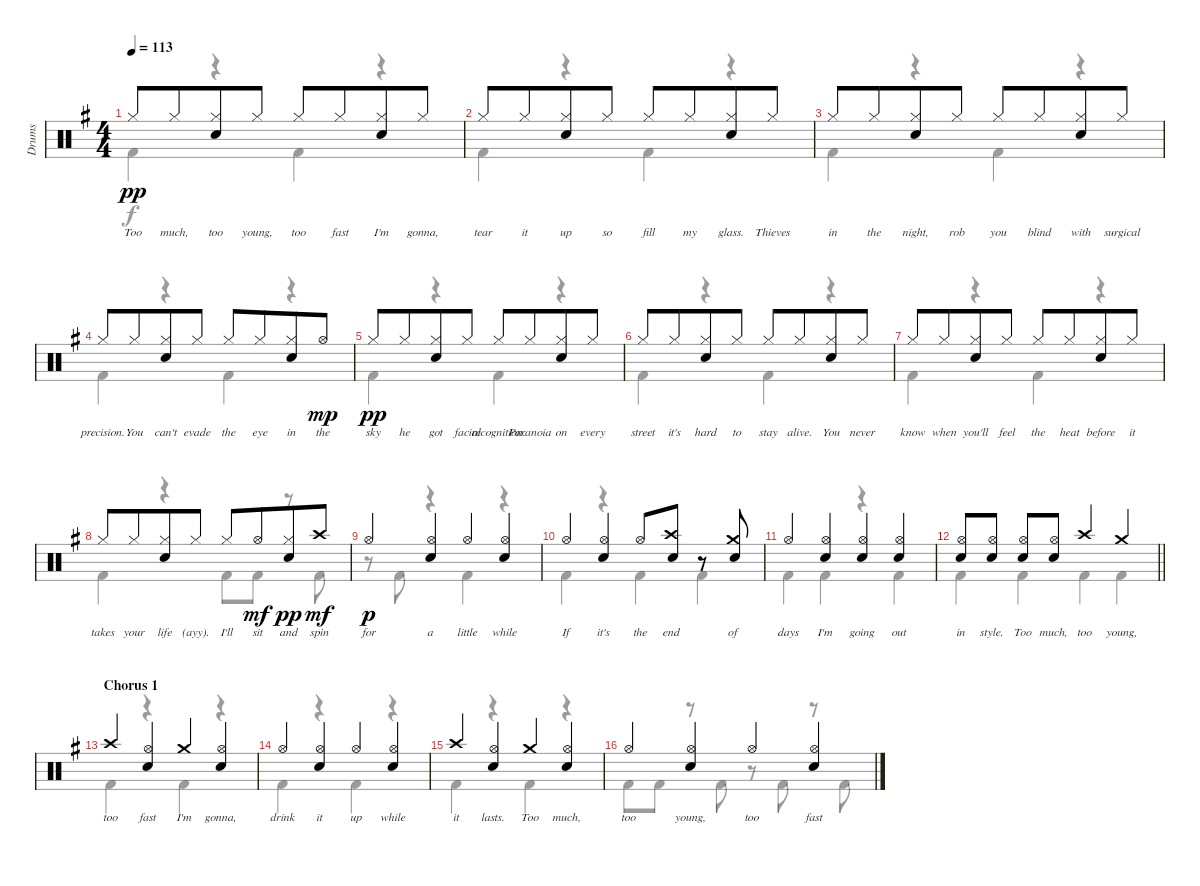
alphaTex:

\track ("Drums" "Drums") {instrument percussion}
\staff {score}
\articulation defaults
\voice
\ts (4 4)
\tempo 113
\clef neutral
\ks g "Hi-Hat (closed)".8{lyrics (0 "Too") lyrics (1 "") lyrics (2 "") lyrics (3 "") lyrics (4 "") dy pp} "Hi-Hat (closed)".8{lyrics (0 "much,") lyrics (1 "") lyrics (2 "") lyrics (3 "") lyrics (4 "") beam merge}
("Hi-Hat (closed)" "Electric Snare (hit)").8{lyrics (0 "too") lyrics (1 "") lyrics (2 "") lyrics (3 "") lyrics (4 "")} "Hi-Hat (closed)".8{lyrics (0 "young,") lyrics (1 "") lyrics (2 "") lyrics (3 "") lyrics (4 "")} "Hi-Hat (closed)".8{lyrics (0 "too") lyrics (1 "") lyrics (2 "") lyrics (3 "") lyrics (4 "")} "Hi-Hat (closed)".8{lyrics (0 "fast") lyrics (1 "") lyrics (2 "") lyrics (3 "") lyrics (4 "") beam merge} ("Hi-Hat (closed)" "Electric Snare (hit)").8{lyrics (0 "I'm") lyrics (1 "") lyrics (2 "") lyrics (3 "") lyrics (4 "")} "Hi-Hat (closed)".8{lyrics (0 "gonna,") lyrics (1 "") lyrics (2 "") lyrics (3 "") lyrics (4 "")} |
"Hi-Hat (closed)".8{lyrics (0 "tear") lyrics (1 "") lyrics (2 "") lyrics (3 "") lyrics (4 "")} "Hi-Hat (closed)".8{lyrics (0 "it") lyrics (1 "") lyrics (2 "") lyrics (3 "") lyrics (4 "") beam merge} ("Hi-Hat (closed)" "Electric Snare (hit)").8{lyrics (0 "up") lyrics (1 "") lyrics (2 "") lyrics (3 "") lyrics (4 "")} "Hi-Hat (closed)".8{lyrics (0 "so") lyrics (1 "") lyrics (2 "") lyrics (3 "") lyrics (4 "")} "Hi-Hat (closed)".8{lyrics (0 "fill") lyrics (1 "") lyrics (2 "") lyrics (3 "") lyrics (4 "")} "Hi-Hat (closed)".8{lyrics (0 "my") lyrics (1 "") lyrics (2 "") lyrics (3 "") lyrics (4 "") beam merge} ("Hi-Hat (closed)" "Electric Snare (hit)").8{lyrics (0 "glass.") lyrics (1 "") lyrics (2 "") lyrics (3 "") lyrics (4 "")} "Hi-Hat (closed)".8{lyrics (0 "Thieves") lyrics (1 "") lyrics (2 "") lyrics (3 "") lyrics (4 "")} |
"Hi-Hat (closed)".8{lyrics (0 "in") lyrics (1 "") lyrics (2 "") lyrics (3 "") lyrics (4 "")} "Hi-Hat (closed)".8{lyrics (0 "the") lyrics (1 "") lyrics (2 "") lyrics (3 "") lyrics (4 "") beam merge} ("Hi-Hat (closed)" "Electric Snare (hit)").8{lyrics (0 "night,") lyrics (1 "") lyrics (2 "") lyrics (3 "") lyrics (4 "")} "Hi-Hat (closed)".8{lyrics (0 "rob") lyrics (1 "") lyrics (2 "") lyrics (3 "") lyrics (4 "")} "Hi-Hat (closed)".8{lyrics (0 "you") lyrics (1 "") lyrics (2 "") lyrics (3 "") lyrics (4 "")} "Hi-Hat (closed)".8{lyrics (0 "blind") lyrics (1 "") lyrics (2 "") lyrics (3 "") lyrics (4 "") beam merge} ("Hi-Hat (closed)" "Electric Snare (hit)").8{lyrics (0 "with") lyrics (1 "") lyrics (2 "") lyrics (3 "") lyrics (4 "")} "Hi-Hat (closed)".8{lyrics (0 "surgical") lyrics (1 "") lyrics (2 "") lyrics (3 "") lyrics (4 "")} |
"Hi-Hat (closed)".8{lyrics (0 "precision.") lyrics (1 "") lyrics (2 "") lyrics (3 "") lyrics (4 "")} "Hi-Hat (closed)".8{lyrics (0 "You") lyrics (1 "") lyrics (2 "") lyrics (3 "") lyrics (4 "") beam merge} ("Hi-Hat (closed)" "Electric Snare (hit)").8{lyrics (0 "can't") lyrics (1 "") lyrics (2 "") lyrics (3 "") lyrics (4 "")} "Hi-Hat (closed)".8{lyrics (0 "evade") lyrics (1 "") lyrics (2 "") lyrics (3 "") lyrics (4 "")} "Hi-Hat (closed)".8{lyrics (0 "the") lyrics (1 "") lyrics (2 "") lyrics (3 "") lyrics (4 "")} "Hi-Hat (closed)".8{lyrics (0 "eye") lyrics (1 "") lyrics (2 "") lyrics (3 "") lyrics (4 "") beam merge} ("Hi-Hat (closed)" "Electric Snare (hit)").8{lyrics (0 "in") lyrics (1 "") lyrics (2 "") lyrics (3 "") lyrics (4 "")} "Hi-Hat (open)".8{lyrics (0 "the") lyrics (1 "") lyrics (2 "") lyrics (3 "") lyrics (4 "") dy mp} |
"Hi-Hat (closed)".8{lyrics (0 "sky") lyrics (1 "") lyrics (2 "") lyrics (3 "") lyrics (4 "") dy pp} "Hi-Hat (closed)".8{lyrics (0 "he") lyrics (1 "") lyrics (2 "") lyrics (3 "") lyrics (4 "") beam merge} ("Hi-Hat (closed)" "Electric Snare (hit)").8{lyrics (0 "got") lyrics (1 "") lyrics (2 "") lyrics (3 "") lyrics (4 "")} "Hi-Hat (closed)".8{lyrics (0 "facial") lyrics (1 "") lyrics (2 "") lyrics (3 "") lyrics (4 "")} "Hi-Hat (closed)".8{lyrics (0 "recognition.") lyrics (1 "") lyrics (2 "") lyrics (3 "") lyrics (4 "")} "Hi-Hat (closed)".8{lyrics (0 "Paranoia") lyrics (1 "") lyrics (2 "") lyrics (3 "") lyrics (4 "") beam merge} ("Hi-Hat (closed)" "Electric Snare (hit)").8{lyrics (0 "on") lyrics (1 "") lyrics (2 "") lyrics (3 "") lyrics (4 "")} "Hi-Hat (closed)".8{lyrics (0 "every") lyrics (1 "") lyrics (2 "") lyrics (3 "") lyrics (4 "")} |
"Hi-Hat (closed)".8{lyrics (0 "street") lyrics (1 "") lyrics (2 "") lyrics (3 "") lyrics (4 "")} "Hi-Hat (closed)".8{lyrics (0 "it's") lyrics (1 "") lyrics (2 "") lyrics (3 "") lyrics (4 "") beam merge} ("Hi-Hat (closed)" "Electric Snare (hit)").8{lyrics (0 "hard") lyrics (1 "") lyrics (2 "") lyrics (3 "") lyrics (4 "")} "Hi-Hat (closed)".8{lyrics (0 "to") lyrics (1 "") lyrics (2 "") lyrics (3 "") lyrics (4 "")} "Hi-Hat (closed)".8{lyrics (0 "stay") lyrics (1 "") lyrics (2 "") lyrics (3 "") lyrics (4 "")} "Hi-Hat (closed)".8{lyrics (0 "alive.") lyrics (1 "") lyrics (2 "") lyrics (3 "") lyrics (4 "") beam merge} ("Hi-Hat (closed)" "Electric Snare (hit)").8{lyrics (0 "You") lyrics (1 "") lyrics (2 "") lyrics (3 "") lyrics (4 "")} "Hi-Hat (closed)".8{lyrics (0 "never") lyrics (1 "") lyrics (2 "") lyrics (3 "") lyrics (4 "")} |
"Hi-Hat (closed)".8{lyrics (0 "know") lyrics (1 "") lyrics (2 "") lyrics (3 "") lyrics (4 "")} "Hi-Hat (closed)".8{lyrics (0 "when") lyrics (1 "") lyrics (2 "") lyrics (3 "") lyrics (4 "") beam merge} ("Hi-Hat (closed)" "Electric Snare (hit)").8{lyrics (0 "you'll") lyrics (1 "") lyrics (2 "") lyrics (3 "") lyrics (4 "")} "Hi-Hat (closed)".8{lyrics (0 "feel") lyrics (1 "") lyrics (2 "") lyrics (3 "") lyrics (4 "")} "Hi-Hat (closed)".8{lyrics (0 "the") lyrics (1 "") lyrics (2 "") lyrics (3 "") lyrics (4 "")} "Hi-Hat (closed)".8{lyrics (0 "heat") lyrics (1 "") lyrics (2 "") lyrics (3 "") lyrics (4 "") beam merge} ("Hi-Hat (closed)" "Electric Snare (hit)").8{lyrics (0 "before") lyrics (1 "") lyrics (2 "") lyrics (3 "") lyrics (4 "")} "Hi-Hat (closed)".8{lyrics (0 "it") lyrics (1 "") lyrics (2 "") lyrics (3 "") lyrics (4 "")} |
"Hi-Hat (closed)".8{lyrics (0 "takes") lyrics (1 "") lyrics (2 "") lyrics (3 "") lyrics (4 "")} "Hi-Hat (closed)".8{lyrics (0 "your") lyrics (1 "") lyrics (2 "") lyrics (3 "") lyrics (4 "") beam merge} ("Hi-Hat (closed)" "Electric Snare (hit)").8{lyrics (0 "life") lyrics (1 "") lyrics (2 "") lyrics (3 "") lyrics (4 "")} "Hi-Hat (closed)".8{lyrics (0 "(ayy).") lyrics (1 "") lyrics (2 "") lyrics (3 "") lyrics (4 "")} "Hi-Hat (closed)".8{lyrics (0 "I'll") lyrics (1 "") lyrics (2 "") lyrics (3 "") lyrics (4 "")} "Hi-Hat (open)".8{lyrics (0 "sit") lyrics (1 "") lyrics (2 "") lyrics (3 "") lyrics (4 "") dy mf beam merge} ("Hi-Hat (closed)" "Electric Snare (hit)").8{lyrics (0 "and") lyrics (1 "") lyrics (2 "") lyrics (3 "") lyrics (4 "") dy pp} "Crash high (hit)".8{lyrics (0 "spin") lyrics (1 "") lyrics (2 "") lyrics (3 "") lyrics (4 "") dy mf} |
"Hi-Hat (open)".4{lyrics (0 "for") lyrics (1 "") lyrics (2 "") lyrics (3 "") lyrics (4 "") dy p} ("Hi-Hat (open)" "Electric Snare (hit)").4{lyrics (0 "a") lyrics (1 "") lyrics (2 "") lyrics (3 "") lyrics (4 "")} "Hi-Hat (open)".4{lyrics (0 "little") lyrics (1 "") lyrics (2 "") lyrics (3 "") lyrics (4 "")} ("Hi-Hat (open)" "Electric Snare (hit)").4{lyrics (0 "while") lyrics (1 "") lyrics (2 "") lyrics (3 "") lyrics (4 "")} |
"Hi-Hat (open)".4{lyrics (0 "If") lyrics (1 "") lyrics (2 "") lyrics (3 "") lyrics (4 "")} ("Hi-Hat (open)" "Electric Snare (hit)").4{lyrics (0 "it's") lyrics (1 "") lyrics (2 "") lyrics (3 "") lyrics (4 "")} "Hi-Hat (open)".8{lyrics (0 "the") lyrics (1 "") lyrics (2 "") lyrics (3 "") lyrics (4 "")} ("Electric Snare (hit)" "Crash high (hit)").8{lyrics (0 "end") lyrics (1 "") lyrics (2 "") lyrics (3 "") lyrics (4 "")} r.8 ("Electric Snare (hit)" "Crash medium (hit)").8{lyrics (0 "of") lyrics (1 "") lyrics (2 "") lyrics (3 "") lyrics (4 "")} |
"Hi-Hat (open)".4{lyrics (0 "days") lyrics (1 "") lyrics (2 "") lyrics (3 "") lyrics (4 "")} ("Hi-Hat (open)" "Electric Snare (hit)").4{lyrics (0 "I'm") lyrics (1 "") lyrics (2 "") lyrics (3 "") lyrics (4 "")} ("Hi-Hat (open)" "Electric Snare (hit)").4{lyrics (0 "going") lyrics (1 "") lyrics (2 "") lyrics (3 "") lyrics (4 "")} ("Hi-Hat (open)" "Electric Snare (hit)").4{lyrics (0 "out") lyrics (1 "") lyrics (2 "") lyrics (3 "") lyrics (4 "")} |
\barLineRight lightlight
("Electric Snare (hit)" "Hi-Hat (open)").8{lyrics (0 "in") lyrics (1 "") lyrics (2 "") lyrics (3 "") lyrics (4 "")} ("Electric Snare (hit)" "Hi-Hat (open)").8{lyrics (0 "style.") lyrics (1 "") lyrics (2 "") lyrics (3 "") lyrics (4 "")} ("Electric Snare (hit)" "Hi-Hat (open)").8{lyrics (0 "Too") lyrics (1 "") lyrics (2 "") lyrics (3 "") lyrics (4 "")} ("Electric Snare (hit)" "Hi-Hat (open)").8{lyrics (0 "much,") lyrics (1 "") lyrics (2 "") lyrics (3 "") lyrics (4 "")} "Crash high (hit)".4{lyrics (0 "too") lyrics (1 "") lyrics (2 "") lyrics (3 "") lyrics (4 "")} "Crash medium (hit)".4{lyrics (0 "young,") lyrics (1 "") lyrics (2 "") lyrics (3 "") lyrics (4 "")} |
\section ("" "Chorus 1")
"Crash high (hit)".4{lyrics (0 "too") lyrics (1 "") lyrics (2 "") lyrics (3 "") lyrics (4 "")} ("Hi-Hat (open)" "Electric Snare (hit)").4{lyrics (0 "fast") lyrics (1 "") lyrics (2 "") lyrics (3 "") lyrics (4 "")} "Crash medium (hit)".4{lyrics (0 "I'm") lyrics (1 "") lyrics (2 "") lyrics (3 "") lyrics (4 "")} ("Hi-Hat (open)" "Electric Snare (hit)").4{lyrics (0 "gonna,") lyrics (1 "") lyrics (2 "") lyrics (3 "") lyrics (4 "")} |
"Hi-Hat (open)".4{lyrics (0 "drink") lyrics (1 "") lyrics (2 "") lyrics (3 "") lyrics (4 "")} ("Hi-Hat (open)" "Electric Snare (hit)").4{lyrics (0 "it") lyrics (1 "") lyrics (2 "") lyrics (3 "") lyrics (4 "")} "Hi-Hat (open)".4{lyrics (0 "up") lyrics (1 "") lyrics (2 "") lyrics (3 "") lyrics (4 "")} ("Hi-Hat (open)" "Electric Snare (hit)").4{lyrics (0 "while") lyrics (1 "") lyrics (2 "") lyrics (3 "") lyrics (4 "")} |
"Crash high (hit)".4{lyrics (0 "it") lyrics (1 "") lyrics (2 "") lyrics (3 "") lyrics (4 "")} ("Hi-Hat (open)" "Electric Snare (hit)").4{lyrics (0 "lasts.") lyrics (1 "") lyrics (2 "") lyrics (3 "") lyrics (4 "")} "Crash medium (hit)".4{lyrics (0 "Too") lyrics (1 "") lyrics (2 "") lyrics (3 "") lyrics (4 "")} ("Hi-Hat (open)" "Electric Snare (hit)").4{lyrics (0 "much,") lyrics (1 "") lyrics (2 "") lyrics (3 "") lyrics (4 "")} |
"Hi-Hat (open)".4{lyrics (0 "too") lyrics (1 "") lyrics (2 "") lyrics (3 "") lyrics (4 "")} ("Electric Snare (hit)" "Hi-Hat (open)").4{lyrics (0 "young,") lyrics (1 "") lyrics (2 "") lyrics (3 "") lyrics (4 "")} "Hi-Hat (open)".4{lyrics (0 "too") lyrics (1 "") lyrics (2 "") lyrics (3 "") lyrics (4 "")} ("Electric Snare (hit)" "Hi-Hat (open)").4{lyrics (0 "fast") lyrics (1 "") lyrics (2 "") lyrics (3 "") lyrics (4 "")}
\voice
\clef neutral
\ottava regular
\simile none
\ks g "Kick (hit) 2".4{dy f}
r.4 "Kick (hit) 2".4 r.4 |
"Kick (hit) 2".4 r.4 "Kick (hit) 2".4 r.4 |
"Kick (hit) 2".4 r.4 "Kick (hit) 2".4 r.4 |
"Kick (hit) 2".4 r.4 "Kick (hit) 2".4 r.4 |
"Kick (hit) 2".4 r.4 "Kick (hit) 2".4 r.4 |
"Kick (hit) 2".4 r.4 "Kick (hit) 2".4 r.4 |
"Kick (hit) 2".4 r.4 "Kick (hit) 2".4 r.4 |
"Kick (hit) 2".4 r.4 "Kick (hit) 2".8 "Kick (hit) 2".8 r.8 "Kick (hit) 2".8 |
r.8 "Kick (hit) 2".8 r.4 "Kick (hit) 2".4 r.4 |
"Kick (hit) 2".4 r.4 "Kick (hit) 2".4 "Kick (hit) 2".4 |
"Kick (hit) 2".4 "Kick (hit) 2".4 r.4 "Kick (hit) 2".4 |
\barLineRight lightlight "Kick (hit) 2".4 "Kick (hit) 2".4 "Kick (hit) 2".4 "Kick (hit) 2".4
|
"Kick (hit) 2".4 r.4 "Kick (hit) 2".4 r.4 |
"Kick (hit) 2".4 r.4 "Kick (hit) 2".4 r.4 |
"Kick (hit) 2".4 r.4 "Kick (hit) 2".4 r.4 |
"Kick (hit) 2".8 "Kick (hit) 2".8 r.8 "Kick (hit) 2".8 r.8 "Kick (hit) 2".8 r.8 "Kick (hit) 2".8
